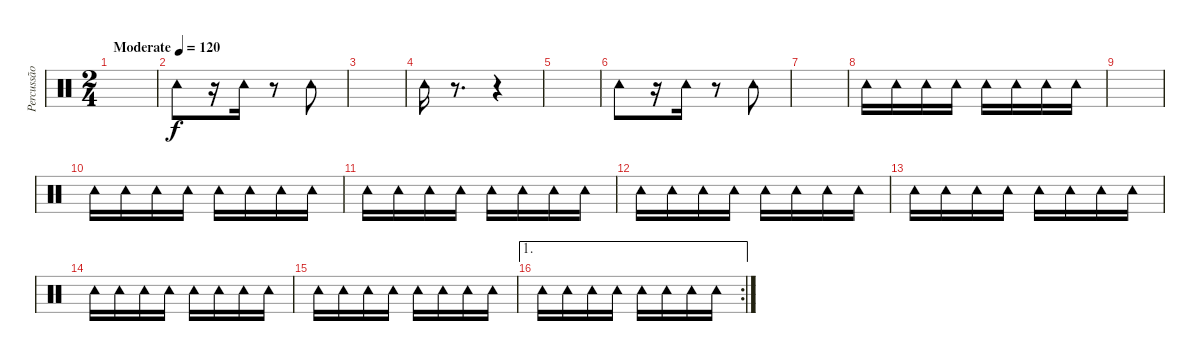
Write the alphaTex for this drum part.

\track ("Percussão" "Percussão") {instrument percussion}
\staff {score}
\articulation defaults
\ts (2 4)
\tempo (120 "Moderate")
\clef neutral
\ks c
|
"Tambourine (hit)".8 r.16 "Tambourine (hit)".16 r.8 "Tambourine (hit)".8 |
|
"Tambourine (hit)".16 r.8{d} r.4 |
|
"Tambourine (hit)".8 r.16 "Tambourine (hit)".16 r.8 "Tambourine (hit)".8 |
|
"Tambourine (hit)".16 "Tambourine (hit)".16 "Tambourine (hit)".16 "Tambourine (hit)".16 "Tambourine (hit)".16 "Tambourine (hit)".16 "Tambourine (hit)".16 "Tambourine (hit)".16 |
|
"Tambourine (hit)".16 "Tambourine (hit)".16 "Tambourine (hit)".16 "Tambourine (hit)".16 "Tambourine (hit)".16 "Tambourine (hit)".16 "Tambourine (hit)".16 "Tambourine (hit)".16 |
"Tambourine (hit)".16 "Tambourine (hit)".16 "Tambourine (hit)".16 "Tambourine (hit)".16 "Tambourine (hit)".16 "Tambourine (hit)".16 "Tambourine (hit)".16 "Tambourine (hit)".16 |
"Tambourine (hit)".16 "Tambourine (hit)".16 "Tambourine (hit)".16 "Tambourine (hit)".16 "Tambourine (hit)".16 "Tambourine (hit)".16 "Tambourine (hit)".16 "Tambourine (hit)".16 |
"Tambourine (hit)".16 "Tambourine (hit)".16 "Tambourine (hit)".16 "Tambourine (hit)".16 "Tambourine (hit)".16 "Tambourine (hit)".16 "Tambourine (hit)".16 "Tambourine (hit)".16 |
"Tambourine (hit)".16 "Tambourine (hit)".16 "Tambourine (hit)".16 "Tambourine (hit)".16 "Tambourine (hit)".16 "Tambourine (hit)".16 "Tambourine (hit)".16 "Tambourine (hit)".16 |
"Tambourine (hit)".16 "Tambourine (hit)".16 "Tambourine (hit)".16 "Tambourine (hit)".16 "Tambourine (hit)".16 "Tambourine (hit)".16 "Tambourine (hit)".16 "Tambourine (hit)".16 |
\ae 1
\rc 2 "Tambourine (hit)".16 "Tambourine (hit)".16 "Tambourine (hit)".16 "Tambourine (hit)".16 "Tambourine (hit)".16 "Tambourine (hit)".16 "Tambourine (hit)".16 "Tambourine (hit)".16
